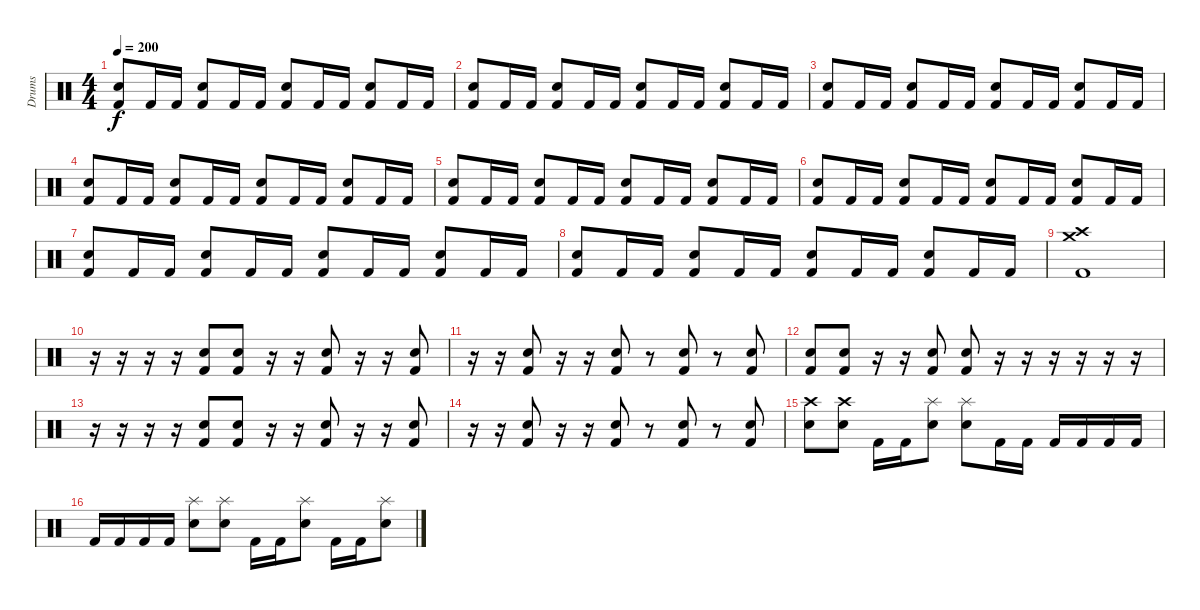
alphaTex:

\track ("Drums" "Drums") {instrument percussion}
\staff {score}
\articulation defaults
\ts (4 4)
\tempo 200
\clef neutral
\ks c
("Snare (hit) 2" "Kick (hit) 2").8{dy f} "Kick (hit) 2".16 "Kick (hit) 2".16 ("Snare (hit) 2" "Kick (hit) 2").8 "Kick (hit) 2".16 "Kick (hit) 2".16 ("Snare (hit) 2" "Kick (hit) 2").8 "Kick (hit) 2".16 "Kick (hit) 2".16 ("Snare (hit) 2" "Kick (hit) 2").8 "Kick (hit) 2".16 "Kick (hit) 2".16 |
("Snare (hit) 2" "Kick (hit) 2").8 "Kick (hit) 2".16 "Kick (hit) 2".16 ("Snare (hit) 2" "Kick (hit) 2").8 "Kick (hit) 2".16 "Kick (hit) 2".16 ("Snare (hit) 2" "Kick (hit) 2").8 "Kick (hit) 2".16 "Kick (hit) 2".16 ("Snare (hit) 2" "Kick (hit) 2").8 "Kick (hit) 2".16 "Kick (hit) 2".16 |
("Snare (hit) 2" "Kick (hit) 2").8 "Kick (hit) 2".16 "Kick (hit) 2".16 ("Snare (hit) 2" "Kick (hit) 2").8 "Kick (hit) 2".16 "Kick (hit) 2".16 ("Snare (hit) 2" "Kick (hit) 2").8 "Kick (hit) 2".16 "Kick (hit) 2".16 ("Snare (hit) 2" "Kick (hit) 2").8 "Kick (hit) 2".16 "Kick (hit) 2".16 |
("Snare (hit) 2" "Kick (hit) 2").8 "Kick (hit) 2".16 "Kick (hit) 2".16 ("Snare (hit) 2" "Kick (hit) 2").8 "Kick (hit) 2".16 "Kick (hit) 2".16 ("Snare (hit) 2" "Kick (hit) 2").8 "Kick (hit) 2".16 "Kick (hit) 2".16 ("Snare (hit) 2" "Kick (hit) 2").8 "Kick (hit) 2".16 "Kick (hit) 2".16 |
("Snare (hit) 2" "Kick (hit) 2").8 "Kick (hit) 2".16 "Kick (hit) 2".16 ("Snare (hit) 2" "Kick (hit) 2").8 "Kick (hit) 2".16 "Kick (hit) 2".16 ("Snare (hit) 2" "Kick (hit) 2").8 "Kick (hit) 2".16 "Kick (hit) 2".16 ("Snare (hit) 2" "Kick (hit) 2").8 "Kick (hit) 2".16 "Kick (hit) 2".16 |
("Snare (hit) 2" "Kick (hit) 2").8 "Kick (hit) 2".16 "Kick (hit) 2".16 ("Snare (hit) 2" "Kick (hit) 2").8 "Kick (hit) 2".16 "Kick (hit) 2".16 ("Snare (hit) 2" "Kick (hit) 2").8 "Kick (hit) 2".16 "Kick (hit) 2".16 ("Snare (hit) 2" "Kick (hit) 2").8 "Kick (hit) 2".16 "Kick (hit) 2".16 |
("Snare (hit) 2" "Kick (hit) 2").8 "Kick (hit) 2".16 "Kick (hit) 2".16 ("Snare (hit) 2" "Kick (hit) 2").8 "Kick (hit) 2".16 "Kick (hit) 2".16 ("Snare (hit) 2" "Kick (hit) 2").8 "Kick (hit) 2".16 "Kick (hit) 2".16 ("Snare (hit) 2" "Kick (hit) 2").8 "Kick (hit) 2".16 "Kick (hit) 2".16 |
("Snare (hit) 2" "Kick (hit) 2").8 "Kick (hit) 2".16 "Kick (hit) 2".16 ("Snare (hit) 2" "Kick (hit) 2").8 "Kick (hit) 2".16 "Kick (hit) 2".16 ("Snare (hit) 2" "Kick (hit) 2").8 "Kick (hit) 2".16 "Kick (hit) 2".16 ("Snare (hit) 2" "Kick (hit) 2").8 "Kick (hit) 2".16 "Kick (hit) 2".16 |
("Crash medium (hit)" "Crash high (hit)" "Kick (hit) 2").1 |
r.16 r.16 r.16 r.16 ("Snare (hit) 2" "Kick (hit) 2").8 ("Snare (hit) 2" "Kick (hit) 2").8 r.16 r.16 ("Snare (hit) 2" "Kick (hit) 2").8 r.16 r.16 ("Snare (hit) 2" "Kick (hit) 2").8 |
r.16 r.16 ("Snare (hit) 2" "Kick (hit) 2").8 r.16 r.16 ("Snare (hit) 2" "Kick (hit) 2").8 r.8 ("Snare (hit) 2" "Kick (hit) 2").8 r.8 ("Snare (hit) 2" "Kick (hit) 2").8 |
("Snare (hit) 2" "Kick (hit) 2").8 ("Snare (hit) 2" "Kick (hit) 2").8 r.16 r.16 ("Snare (hit) 2" "Kick (hit) 2").8 ("Snare (hit) 2" "Kick (hit) 2").8 r.16 r.16 r.16 r.16 r.16 r.16 |
r.16 r.16 r.16 r.16 ("Snare (hit) 2" "Kick (hit) 2").8 ("Snare (hit) 2" "Kick (hit) 2").8 r.16 r.16 ("Snare (hit) 2" "Kick (hit) 2").8 r.16 r.16 ("Snare (hit) 2" "Kick (hit) 2").8 |
r.16 r.16 ("Snare (hit) 2" "Kick (hit) 2").8 r.16 r.16 ("Snare (hit) 2" "Kick (hit) 2").8 r.8 ("Snare (hit) 2" "Kick (hit) 2").8 r.8 ("Snare (hit) 2" "Kick (hit) 2").8 |
("Crash high (hit)" "Snare (hit) 2").8 ("Crash high (hit)" "Snare (hit) 2").8 "Kick (hit) 2".16 "Kick (hit) 2".16 ("Splash (hit)" "Snare (hit) 2").8 ("Splash (hit)" "Snare (hit) 2").8 "Kick (hit) 2".16 "Kick (hit) 2".16 "Kick (hit) 2".16 "Kick (hit) 2".16 "Kick (hit) 2".16 "Kick (hit) 2".16 |
"Kick (hit) 2".16 "Kick (hit) 2".16 "Kick (hit) 2".16 "Kick (hit) 2".16 ("Splash (hit)" "Snare (hit) 2").8 ("Splash (hit)" "Snare (hit) 2").8 "Kick (hit) 2".16 "Kick (hit) 2".16 ("Splash (hit)" "Snare (hit) 2").8 "Kick (hit) 2".16 "Kick (hit) 2".16 ("Splash (hit)" "Snare (hit) 2").8
